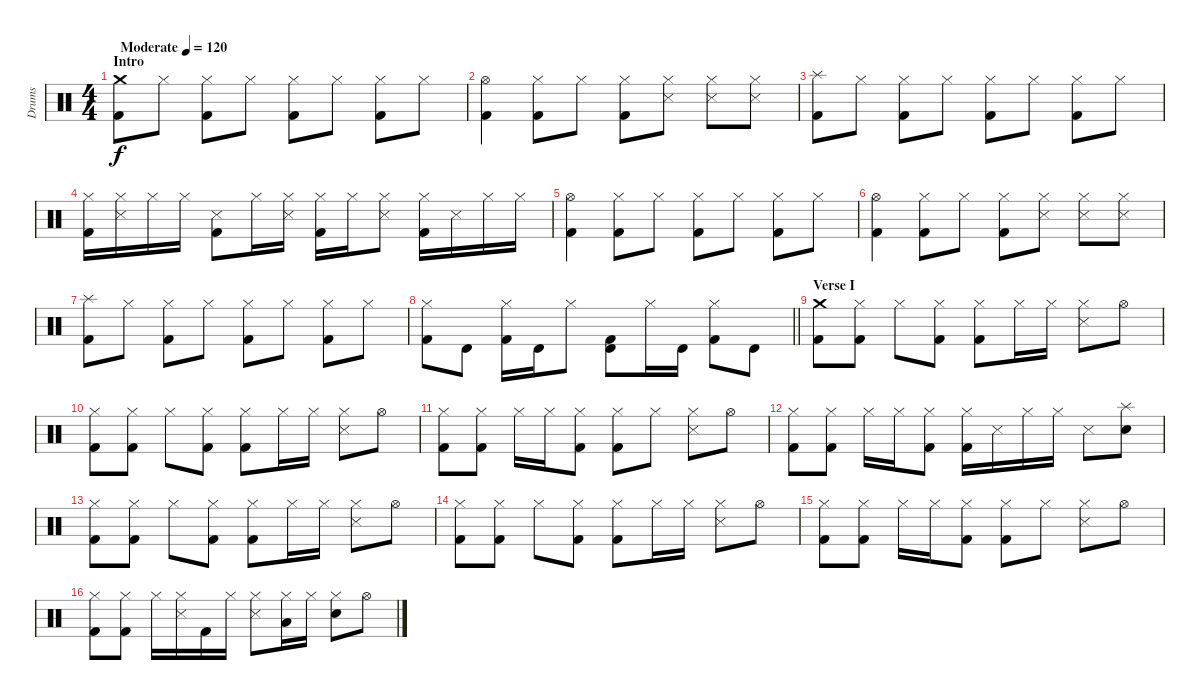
\track ("Drums" "Drums") {instrument percussion}
\staff {score}
\articulation defaults
\ts (4 4)
\section ("" "Intro")
\tempo (120 "Moderate")
\clef neutral
\ks c
("Crash medium (hit)" "Kick (hit) 2").8{dy f} "Hi-Hat (closed)".8 ("Hi-Hat (closed)" "Kick (hit) 2").8 "Hi-Hat (closed)".8 ("Hi-Hat (closed)" "Kick (hit) 2").8 "Hi-Hat (closed)".8 ("Hi-Hat (closed)" "Kick (hit) 2").8 "Hi-Hat (closed)".8 |
("Hi-Hat (open)" "Kick (hit) 2").4 ("Hi-Hat (closed)" "Kick (hit) 2").8 "Hi-Hat (closed)".8 ("Hi-Hat (closed)" "Kick (hit) 2").8 ("Hi-Hat (closed)" "Snare (side stick) 3").8 ("Hi-Hat (closed)" "Snare (side stick) 3").8 ("Hi-Hat (closed)" "Snare (side stick) 3").8 |
("Splash (hit)" "Kick (hit) 2").8 "Hi-Hat (closed)".8 ("Hi-Hat (closed)" "Kick (hit) 2").8 "Hi-Hat (closed)".8 ("Hi-Hat (closed)" "Kick (hit) 2").8 "Hi-Hat (closed)".8 ("Hi-Hat (closed)" "Kick (hit) 2").8 "Hi-Hat (closed)".8 |
("Hi-Hat (closed)" "Kick (hit) 2").16 ("Hi-Hat (closed)" "Snare (side stick) 3").16 "Hi-Hat (closed)".16 "Hi-Hat (closed)".16 ("Kick (hit) 2" "Snare (side stick) 3").8 "Hi-Hat (closed)".16 ("Hi-Hat (closed)" "Snare (side stick) 3").16 ("Hi-Hat (closed)" "Kick (hit) 2").16 "Hi-Hat (closed)".16 ("Hi-Hat (closed)" "Snare (side stick) 3").8 ("Hi-Hat (closed)" "Kick (hit) 2").16 "Snare (side stick) 3".16 "Hi-Hat (closed)".16 "Hi-Hat (closed)".16 |
("Hi-Hat (open)" "Kick (hit) 2").4 ("Hi-Hat (closed)" "Kick (hit) 2").8 "Hi-Hat (closed)".8 ("Hi-Hat (closed)" "Kick (hit) 2").8 "Hi-Hat (closed)".8 ("Hi-Hat (closed)" "Kick (hit) 2").8 "Hi-Hat (closed)".8 |
("Hi-Hat (open)" "Kick (hit) 2").4 ("Hi-Hat (closed)" "Kick (hit) 2").8 "Hi-Hat (closed)".8 ("Hi-Hat (closed)" "Kick (hit) 2").8 ("Hi-Hat (closed)" "Snare (side stick) 3").8 ("Hi-Hat (closed)" "Snare (side stick) 3").8 ("Hi-Hat (closed)" "Snare (side stick) 3").8 |
("Splash (hit)" "Kick (hit) 2").8 "Hi-Hat (closed)".8 ("Hi-Hat (closed)" "Kick (hit) 2").8 "Hi-Hat (closed)".8 ("Hi-Hat (closed)" "Kick (hit) 2").8 "Hi-Hat (closed)".8 ("Hi-Hat (closed)" "Kick (hit) 2").8 "Hi-Hat (closed)".8 |
\barLineRight lightlight
("Hi-Hat (closed)" "Kick (hit) 2").8 "Timbale high (hit)".8 ("Hi-Hat (closed)" "Kick (hit) 2").16 "Timbale high (hit)".16 "Hi-Hat (closed)".8 ("Timbale high (hit)" "Kick (hit) 2").8 "Hi-Hat (closed)".16 "Timbale high (hit)".16 ("Hi-Hat (closed)" "Kick (hit) 2").8 "Timbale high (hit)".8 |
\section ("" "Verse I")
("Crash medium (hit)" "Kick (hit) 2").8 ("Hi-Hat (closed)" "Kick (hit) 2").8 "Hi-Hat (closed)".8 ("Hi-Hat (closed)" "Kick (hit) 2").8 ("Hi-Hat (closed)" "Kick (hit) 2").8 "Hi-Hat (closed)".16 "Hi-Hat (closed)".16 ("Hi-Hat (closed)" "Snare (side stick) 3").8 "Hi-Hat (open)".8 |
("Hi-Hat (closed)" "Kick (hit) 2").8 ("Hi-Hat (closed)" "Kick (hit) 2").8 "Hi-Hat (closed)".8 ("Hi-Hat (closed)" "Kick (hit) 2").8 ("Hi-Hat (closed)" "Kick (hit) 2").8 "Hi-Hat (closed)".16 "Hi-Hat (closed)".16 ("Hi-Hat (closed)" "Snare (side stick) 3").8 "Hi-Hat (open)".8 |
("Hi-Hat (closed)" "Kick (hit) 2").8 ("Hi-Hat (closed)" "Kick (hit) 2").8 "Hi-Hat (closed)".16 "Hi-Hat (closed)".16 ("Hi-Hat (closed)" "Kick (hit) 2").8 ("Hi-Hat (closed)" "Kick (hit) 2").8 "Hi-Hat (closed)".8 ("Hi-Hat (closed)" "Snare (side stick) 3").8 "Hi-Hat (open)".8 |
("Hi-Hat (closed)" "Kick (hit) 2").8 ("Hi-Hat (closed)" "Kick (hit) 2").8 "Hi-Hat (closed)".16 "Hi-Hat (closed)".16 ("Hi-Hat (closed)" "Kick (hit) 2").8 ("Hi-Hat (closed)" "Kick (hit) 2").16 "Snare (side stick) 3".16 "Hi-Hat (closed)".16 "Hi-Hat (closed)".16 "Snare (side stick) 3".8 ("Splash (hit)" "Snare (hit) 2").8 |
("Hi-Hat (closed)" "Kick (hit) 2").8 ("Hi-Hat (closed)" "Kick (hit) 2").8 "Hi-Hat (closed)".8 ("Hi-Hat (closed)" "Kick (hit) 2").8 ("Hi-Hat (closed)" "Kick (hit) 2").8 "Hi-Hat (closed)".16 "Hi-Hat (closed)".16 ("Hi-Hat (closed)" "Snare (side stick) 3").8 "Hi-Hat (open)".8 |
("Hi-Hat (closed)" "Kick (hit) 2").8 ("Hi-Hat (closed)" "Kick (hit) 2").8 "Hi-Hat (closed)".8 ("Hi-Hat (closed)" "Kick (hit) 2").8 ("Hi-Hat (closed)" "Kick (hit) 2").8 "Hi-Hat (closed)".16 "Hi-Hat (closed)".16 ("Hi-Hat (closed)" "Snare (side stick) 3").8 "Hi-Hat (open)".8 |
("Hi-Hat (closed)" "Kick (hit) 2").8 ("Hi-Hat (closed)" "Kick (hit) 2").8 "Hi-Hat (closed)".16 "Hi-Hat (closed)".16 ("Hi-Hat (closed)" "Kick (hit) 2").8 ("Hi-Hat (closed)" "Kick (hit) 2").8 "Hi-Hat (closed)".8 ("Hi-Hat (closed)" "Snare (side stick) 3").8 "Hi-Hat (open)".8 |
("Hi-Hat (closed)" "Kick (hit) 2").8 ("Hi-Hat (closed)" "Kick (hit) 2").8 "Hi-Hat (closed)".16 ("Hi-Hat (closed)" "Snare (side stick) 3").16 "Kick (hit) 2".16 "Hi-Hat (closed)".16 ("Hi-Hat (closed)" "Snare (side stick) 3").8 ("Hi-Hat (closed)" "Low Tom (hit)").16 "Hi-Hat (closed)".16 ("Hi-Hat (closed)" "Snare (hit) 2").8 "Hi-Hat (open)".8
